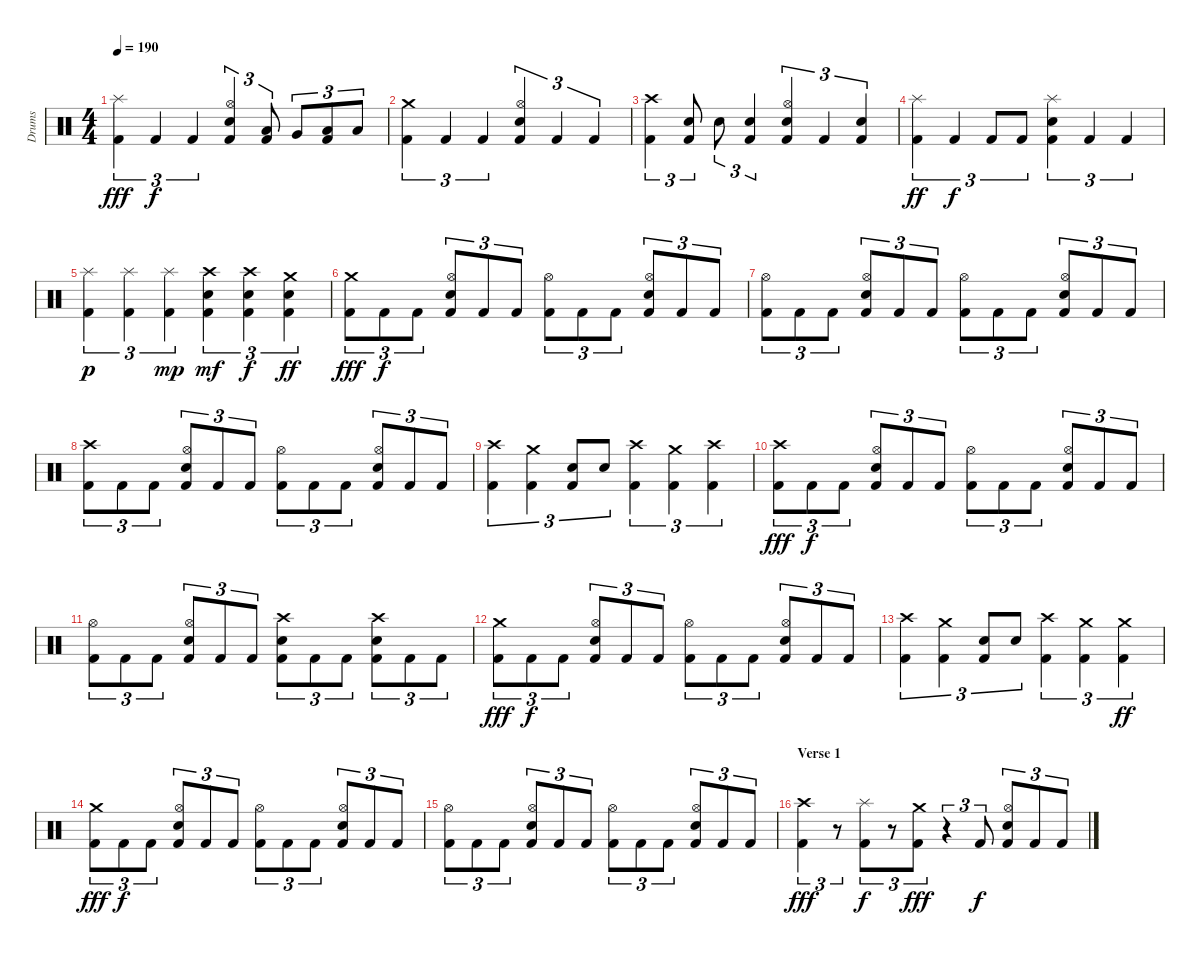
\track ("Drums" "Drums") {instrument percussion}
\staff {score}
\articulation defaults
\ts (4 4)
\tempo 190
\clef neutral
\ks c
("Splash (hit)" "Kick (hit) 2").4{tu (3 2) dy fff} "Kick (hit) 2".4{tu (3 2) dy f} "Kick (hit) 2".4{tu (3 2)} ("Hi-Hat (open)" "Snare (hit) 2" "Kick (hit) 2").4{tu (3 2)} ("Low Tom (hit)" "Kick (hit) 2").8{tu (3 2)} "Very Low Tom (hit)".8{tu (3 2)} ("Low Tom (hit)" "Kick (hit) 2").8{tu (3 2)} "Low Floor Tom (hit)".8{tu (3 2)} |
("Crash medium (hit)" "Kick (hit) 2").4{tu (3 2)} "Kick (hit) 2".4{tu (3 2)} "Kick (hit) 2".4{tu (3 2)} ("Hi-Hat (open)" "Snare (hit) 2" "Kick (hit) 2").4{tu (3 2)} "Kick (hit) 2".4{tu (3 2)} "Kick (hit) 2".4{tu (3 2)} |
("Crash high (hit)" "Kick (hit) 2").4{tu (3 2)} ("Snare (hit) 2" "Kick (hit) 2").8{tu (3 2)} "Snare (hit) 2".8{tu (3 2)} ("Snare (hit) 2" "Kick (hit) 2").4{tu (3 2)} ("Hi-Hat (open)" "Snare (hit) 2" "Kick (hit) 2").4{tu (3 2)} "Kick (hit) 2".4{tu (3 2)} ("Snare (hit) 2" "Kick (hit) 2").4{tu (3 2)} |
("Splash (hit)" "Kick (hit) 2").4{tu (3 2) dy ff} "Kick (hit) 2".4{tu (3 2) dy f} "Kick (hit) 2".8{tu (3 2)} "Kick (hit) 2".8{tu (3 2)} ("Splash (hit)" "Snare (hit) 2" "Kick (hit) 2").4{tu (3 2)} "Kick (hit) 2".4{tu (3 2)} "Kick (hit) 2".4{tu (3 2)} |
("Splash (hit)" "Kick (hit) 2").4{tu (3 2) dy p} ("Splash (hit)" "Kick (hit) 2").4{tu (3 2)} ("Splash (hit)" "Kick (hit) 2").4{tu (3 2) dy mp} ("Crash high (hit)" "Snare (hit) 2" "Kick (hit) 2").4{tu (3 2) dy mf} ("Crash high (hit)" "Snare (hit) 2" "Kick (hit) 2").4{tu (3 2) dy f} ("Crash medium (hit)" "Snare (hit) 2" "Kick (hit) 2").4{tu (3 2) dy ff} |
("Crash medium (hit)" "Kick (hit) 2").8{tu (3 2) dy fff} "Kick (hit) 2".8{tu (3 2) dy f} "Kick (hit) 2".8{tu (3 2)} ("Hi-Hat (open)" "Snare (hit) 2" "Kick (hit) 2").8{tu (3 2)} "Kick (hit) 2".8{tu (3 2)} "Kick (hit) 2".8{tu (3 2)} ("Hi-Hat (open)" "Kick (hit) 2").8{tu (3 2)} "Kick (hit) 2".8{tu (3 2)} "Kick (hit) 2".8{tu (3 2)} ("Hi-Hat (open)" "Snare (hit) 2" "Kick (hit) 2").8{tu (3 2)} "Kick (hit) 2".8{tu (3 2)} "Kick (hit) 2".8{tu (3 2)} |
("Hi-Hat (open)" "Kick (hit) 2").8{tu (3 2)} "Kick (hit) 2".8{tu (3 2)} "Kick (hit) 2".8{tu (3 2)} ("Hi-Hat (open)" "Snare (hit) 2" "Kick (hit) 2").8{tu (3 2)} "Kick (hit) 2".8{tu (3 2)} "Kick (hit) 2".8{tu (3 2)} ("Hi-Hat (open)" "Kick (hit) 2").8{tu (3 2)} "Kick (hit) 2".8{tu (3 2)} "Kick (hit) 2".8{tu (3 2)} ("Hi-Hat (open)" "Snare (hit) 2" "Kick (hit) 2").8{tu (3 2)} "Kick (hit) 2".8{tu (3 2)} "Kick (hit) 2".8{tu (3 2)} |
("Crash high (hit)" "Kick (hit) 2").8{tu (3 2)} "Kick (hit) 2".8{tu (3 2)} "Kick (hit) 2".8{tu (3 2)} ("Hi-Hat (open)" "Snare (hit) 2" "Kick (hit) 2").8{tu (3 2)} "Kick (hit) 2".8{tu (3 2)} "Kick (hit) 2".8{tu (3 2)} ("Hi-Hat (open)" "Kick (hit) 2").8{tu (3 2)} "Kick (hit) 2".8{tu (3 2)} "Kick (hit) 2".8{tu (3 2)} ("Hi-Hat (open)" "Snare (hit) 2" "Kick (hit) 2").8{tu (3 2)} "Kick (hit) 2".8{tu (3 2)} "Kick (hit) 2".8{tu (3 2)} |
("Crash high (hit)" "Kick (hit) 2").4{tu (3 2)} ("Crash medium (hit)" "Kick (hit) 2").4{tu (3 2)} ("Snare (hit) 2" "Kick (hit) 2").8{tu (3 2)} "Snare (hit) 2".8{tu (3 2)} ("Crash high (hit)" "Kick (hit) 2").4{tu (3 2)} ("Crash medium (hit)" "Kick (hit) 2").4{tu (3 2)} ("Crash high (hit)" "Kick (hit) 2").4{tu (3 2)} |
("Crash high (hit)" "Kick (hit) 2").8{tu (3 2) dy fff} "Kick (hit) 2".8{tu (3 2) dy f} "Kick (hit) 2".8{tu (3 2)} ("Hi-Hat (open)" "Snare (hit) 2" "Kick (hit) 2").8{tu (3 2)} "Kick (hit) 2".8{tu (3 2)} "Kick (hit) 2".8{tu (3 2)} ("Hi-Hat (open)" "Kick (hit) 2").8{tu (3 2)} "Kick (hit) 2".8{tu (3 2)} "Kick (hit) 2".8{tu (3 2)} ("Hi-Hat (open)" "Snare (hit) 2" "Kick (hit) 2").8{tu (3 2)} "Kick (hit) 2".8{tu (3 2)} "Kick (hit) 2".8{tu (3 2)} |
("Hi-Hat (open)" "Kick (hit) 2").8{tu (3 2)} "Kick (hit) 2".8{tu (3 2)} "Kick (hit) 2".8{tu (3 2)} ("Hi-Hat (open)" "Snare (hit) 2" "Kick (hit) 2").8{tu (3 2)} "Kick (hit) 2".8{tu (3 2)} "Kick (hit) 2".8{tu (3 2)} ("Crash high (hit)" "Snare (hit) 2" "Kick (hit) 2").8{tu (3 2)} "Kick (hit) 2".8{tu (3 2)} "Kick (hit) 2".8{tu (3 2)} ("Crash high (hit)" "Snare (hit) 2" "Kick (hit) 2").8{tu (3 2)} "Kick (hit) 2".8{tu (3 2)} "Kick (hit) 2".8{tu (3 2)} |
("Crash medium (hit)" "Kick (hit) 2").8{tu (3 2) dy fff} "Kick (hit) 2".8{tu (3 2) dy f} "Kick (hit) 2".8{tu (3 2)} ("Hi-Hat (open)" "Snare (hit) 2" "Kick (hit) 2").8{tu (3 2)} "Kick (hit) 2".8{tu (3 2)} "Kick (hit) 2".8{tu (3 2)} ("Hi-Hat (open)" "Kick (hit) 2").8{tu (3 2)} "Kick (hit) 2".8{tu (3 2)} "Kick (hit) 2".8{tu (3 2)} ("Hi-Hat (open)" "Snare (hit) 2" "Kick (hit) 2").8{tu (3 2)} "Kick (hit) 2".8{tu (3 2)} "Kick (hit) 2".8{tu (3 2)} |
("Crash high (hit)" "Kick (hit) 2").4{tu (3 2)} ("Crash medium (hit)" "Kick (hit) 2").4{tu (3 2)} ("Snare (hit) 2" "Kick (hit) 2").8{tu (3 2)} "Snare (hit) 2".8{tu (3 2)} ("Crash high (hit)" "Kick (hit) 2").4{tu (3 2)} ("Crash medium (hit)" "Kick (hit) 2").4{tu (3 2)} ("Crash medium (hit)" "Kick (hit) 2").4{tu (3 2) dy ff} |
("Crash medium (hit)" "Kick (hit) 2").8{tu (3 2) dy fff} "Kick (hit) 2".8{tu (3 2) dy f} "Kick (hit) 2".8{tu (3 2)} ("Hi-Hat (open)" "Snare (hit) 2" "Kick (hit) 2").8{tu (3 2)} "Kick (hit) 2".8{tu (3 2)} "Kick (hit) 2".8{tu (3 2)} ("Hi-Hat (open)" "Kick (hit) 2").8{tu (3 2)} "Kick (hit) 2".8{tu (3 2)} "Kick (hit) 2".8{tu (3 2)} ("Hi-Hat (open)" "Snare (hit) 2" "Kick (hit) 2").8{tu (3 2)} "Kick (hit) 2".8{tu (3 2)} "Kick (hit) 2".8{tu (3 2)} |
("Hi-Hat (open)" "Kick (hit) 2").8{tu (3 2)} "Kick (hit) 2".8{tu (3 2)} "Kick (hit) 2".8{tu (3 2)} ("Hi-Hat (open)" "Snare (hit) 2" "Kick (hit) 2").8{tu (3 2)} "Kick (hit) 2".8{tu (3 2)} "Kick (hit) 2".8{tu (3 2)} ("Hi-Hat (open)" "Kick (hit) 2").8{tu (3 2)} "Kick (hit) 2".8{tu (3 2)} "Kick (hit) 2".8{tu (3 2)} ("Hi-Hat (open)" "Snare (hit) 2" "Kick (hit) 2").8{tu (3 2)} "Kick (hit) 2".8{tu (3 2)} "Kick (hit) 2".8{tu (3 2)} |
\section ("" "Verse 1")
("Crash high (hit)" "Kick (hit) 2").4{tu (3 2) dy fff} r.8{tu (3 2)} ("Splash (hit)" "Kick (hit) 2").8{tu (3 2) dy f} r.8{tu (3 2)} ("Crash medium (hit)" "Kick (hit) 2").8{tu (3 2) dy fff} r.4{tu (3 2)} "Kick (hit) 2".8{tu (3 2) dy f} ("Hi-Hat (open)" "Snare (hit) 2" "Kick (hit) 2").8{tu (3 2)} "Kick (hit) 2".8{tu (3 2)} "Kick (hit) 2".8{tu (3 2)}
